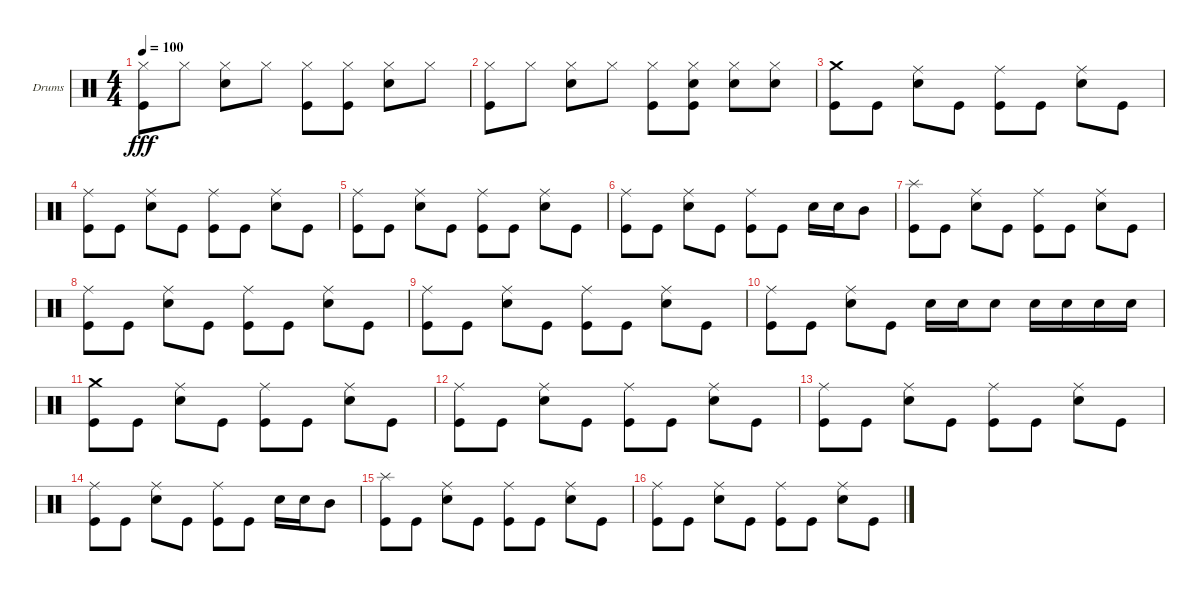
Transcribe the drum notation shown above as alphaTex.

\defaultSystemsLayout 4
\bracketExtendMode groupsimilarinstruments
\firstSystemTrackNameOrientation horizontal
\otherSystemsTrackNameOrientation horizontal
\track ("Барабаны" "Drums") {instrument percussion}
\staff {score}
\articulation defaults
\ts (4 4)
\tempo 100
\clef neutral
\ks c
("Kick (hit)" "Hi-Hat (closed)").8{dy fff} "Hi-Hat (closed)".8 ("Hi-Hat (closed)" "Snare (hit) 2").8 "Hi-Hat (closed)".8 ("Hi-Hat (closed)" "Kick (hit)").8 ("Hi-Hat (closed)" "Kick (hit)").8 ("Hi-Hat (closed)" "Snare (hit) 2").8 "Hi-Hat (closed)".8 |
("Kick (hit)" "Hi-Hat (closed)").8 "Hi-Hat (closed)".8 ("Hi-Hat (closed)" "Snare (hit) 2").8 "Hi-Hat (closed)".8 ("Hi-Hat (closed)" "Kick (hit)").8 ("Hi-Hat (closed)" "Kick (hit)" "Snare (hit) 2").8 ("Hi-Hat (closed)" "Snare (hit) 2").8 ("Hi-Hat (closed)" "Snare (hit) 2").8 |
("Crash medium (hit)" "Kick (hit)").8 "Kick (hit)".8 ("Snare (hit) 2" "Ride (middle)").8 "Kick (hit)".8 ("Kick (hit)" "Ride (middle)").8 "Kick (hit)".8 ("Snare (hit) 2" "Ride (middle)").8 "Kick (hit)".8 |
("Kick (hit)" "Ride (middle)").8 "Kick (hit)".8 ("Snare (hit) 2" "Ride (middle)").8 "Kick (hit)".8 ("Kick (hit)" "Ride (middle)").8 "Kick (hit)".8 ("Snare (hit) 2" "Ride (middle)").8 "Kick (hit)".8 |
("Kick (hit)" "Ride (middle)").8 "Kick (hit)".8 ("Snare (hit) 2" "Ride (middle)").8 "Kick (hit)".8 ("Kick (hit)" "Ride (middle)").8 "Kick (hit)".8 ("Snare (hit) 2" "Ride (middle)").8 "Kick (hit)".8 |
("Kick (hit)" "Ride (middle)").8 "Kick (hit)".8 ("Snare (hit) 2" "Ride (middle)").8 "Kick (hit)".8 ("Kick (hit)" "Ride (middle)").8 "Kick (hit)".8 "Snare (hit) 2".16 "Snare (hit) 2".16 "Mid Tom (hit)".8 |
("Kick (hit)" "Splash (hit)").8 "Kick (hit)".8 ("Snare (hit) 2" "Ride (middle)").8 "Kick (hit)".8 ("Kick (hit)" "Ride (middle)").8 "Kick (hit)".8 ("Snare (hit) 2" "Ride (middle)").8 "Kick (hit)".8 |
("Kick (hit)" "Ride (middle)").8 "Kick (hit)".8 ("Snare (hit) 2" "Ride (middle)").8 "Kick (hit)".8 ("Kick (hit)" "Ride (middle)").8 "Kick (hit)".8 ("Snare (hit) 2" "Ride (middle)").8 "Kick (hit)".8 |
("Kick (hit)" "Ride (middle)").8 "Kick (hit)".8 ("Snare (hit) 2" "Ride (middle)").8 "Kick (hit)".8 ("Kick (hit)" "Ride (middle)").8 "Kick (hit)".8 ("Snare (hit) 2" "Ride (middle)").8 "Kick (hit)".8 |
("Kick (hit)" "Ride (middle)").8 "Kick (hit)".8 ("Snare (hit) 2" "Ride (middle)").8 "Kick (hit)".8 "Snare (hit) 2".16 "Snare (hit) 2".16 "Snare (hit) 2".8 "Snare (hit) 2".16 "Snare (hit) 2".16 "Snare (hit) 2".16 "Snare (hit) 2".16 |
("Crash medium (hit)" "Kick (hit)").8 "Kick (hit)".8 ("Snare (hit) 2" "Ride (middle)").8 "Kick (hit)".8 ("Kick (hit)" "Ride (middle)").8 "Kick (hit)".8 ("Snare (hit) 2" "Ride (middle)").8 "Kick (hit)".8 |
("Kick (hit)" "Ride (middle)").8 "Kick (hit)".8 ("Snare (hit) 2" "Ride (middle)").8 "Kick (hit)".8 ("Kick (hit)" "Ride (middle)").8 "Kick (hit)".8 ("Snare (hit) 2" "Ride (middle)").8 "Kick (hit)".8 |
("Kick (hit)" "Ride (middle)").8 "Kick (hit)".8 ("Snare (hit) 2" "Ride (middle)").8 "Kick (hit)".8 ("Kick (hit)" "Ride (middle)").8 "Kick (hit)".8 ("Snare (hit) 2" "Ride (middle)").8 "Kick (hit)".8 |
("Kick (hit)" "Ride (middle)").8 "Kick (hit)".8 ("Snare (hit) 2" "Ride (middle)").8 "Kick (hit)".8 ("Kick (hit)" "Ride (middle)").8 "Kick (hit)".8 "Snare (hit) 2".16 "Snare (hit) 2".16 "Mid Tom (hit)".8 |
("Kick (hit)" "Splash (hit)").8 "Kick (hit)".8 ("Snare (hit) 2" "Ride (middle)").8 "Kick (hit)".8 ("Kick (hit)" "Ride (middle)").8 "Kick (hit)".8 ("Snare (hit) 2" "Ride (middle)").8 "Kick (hit)".8 |
("Kick (hit)" "Ride (middle)").8 "Kick (hit)".8 ("Snare (hit) 2" "Ride (middle)").8 "Kick (hit)".8 ("Kick (hit)" "Ride (middle)").8 "Kick (hit)".8 ("Snare (hit) 2" "Ride (middle)").8 "Kick (hit)".8
